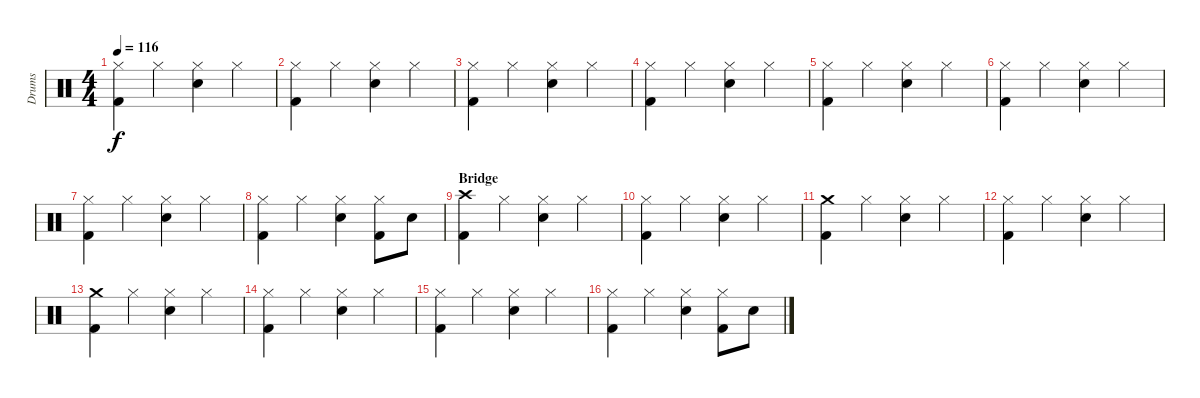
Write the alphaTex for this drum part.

\track ("Drums" "Drums") {instrument percussion}
\staff {score}
\articulation defaults
\ts (4 4)
\tempo 116
\clef neutral
\ks c
("Hi-Hat (closed)" "Kick (hit) 2").4{dy f} "Hi-Hat (closed)".4 ("Hi-Hat (closed)" "Snare (hit) 2").4 "Hi-Hat (closed)".4 |
("Hi-Hat (closed)" "Kick (hit) 2").4 "Hi-Hat (closed)".4 ("Hi-Hat (closed)" "Snare (hit) 2").4 "Hi-Hat (closed)".4 |
("Hi-Hat (closed)" "Kick (hit) 2").4 "Hi-Hat (closed)".4 ("Hi-Hat (closed)" "Snare (hit) 2").4 "Hi-Hat (closed)".4 |
("Hi-Hat (closed)" "Kick (hit) 2").4 "Hi-Hat (closed)".4 ("Hi-Hat (closed)" "Snare (hit) 2").4 "Hi-Hat (closed)".4 |
("Hi-Hat (closed)" "Kick (hit) 2").4 "Hi-Hat (closed)".4 ("Hi-Hat (closed)" "Snare (hit) 2").4 "Hi-Hat (closed)".4 |
("Hi-Hat (closed)" "Kick (hit) 2").4 "Hi-Hat (closed)".4 ("Hi-Hat (closed)" "Snare (hit) 2").4 "Hi-Hat (closed)".4 |
("Hi-Hat (closed)" "Kick (hit) 2").4 "Hi-Hat (closed)".4 ("Hi-Hat (closed)" "Snare (hit) 2").4 "Hi-Hat (closed)".4 |
("Hi-Hat (closed)" "Kick (hit) 2").4 "Hi-Hat (closed)".4 ("Hi-Hat (closed)" "Snare (hit) 2").4 ("Hi-Hat (closed)" "Kick (hit) 2").8 "Snare (hit) 2".8 |
\section ("" "Bridge")
("Crash high (hit)" "Kick (hit) 2").4 "Hi-Hat (closed)".4 ("Hi-Hat (closed)" "Snare (hit) 2").4 "Hi-Hat (closed)".4 |
("Hi-Hat (closed)" "Kick (hit) 2").4 "Hi-Hat (closed)".4 ("Hi-Hat (closed)" "Snare (hit) 2").4 "Hi-Hat (closed)".4 |
("Crash medium (hit)" "Kick (hit) 2").4 "Hi-Hat (closed)".4 ("Hi-Hat (closed)" "Snare (hit) 2").4 "Hi-Hat (closed)".4 |
("Hi-Hat (closed)" "Kick (hit) 2").4 "Hi-Hat (closed)".4 ("Hi-Hat (closed)" "Snare (hit) 2").4 "Hi-Hat (closed)".4 |
("Crash medium (hit)" "Kick (hit) 2").4 "Hi-Hat (closed)".4 ("Hi-Hat (closed)" "Snare (hit) 2").4 "Hi-Hat (closed)".4 |
("Hi-Hat (closed)" "Kick (hit) 2").4 "Hi-Hat (closed)".4 ("Hi-Hat (closed)" "Snare (hit) 2").4 "Hi-Hat (closed)".4 |
("Hi-Hat (closed)" "Kick (hit) 2").4 "Hi-Hat (closed)".4 ("Hi-Hat (closed)" "Snare (hit) 2").4 "Hi-Hat (closed)".4 |
("Hi-Hat (closed)" "Kick (hit) 2").4 "Hi-Hat (closed)".4 ("Hi-Hat (closed)" "Snare (hit) 2").4 ("Hi-Hat (closed)" "Kick (hit) 2").8 "Snare (hit) 2".8
